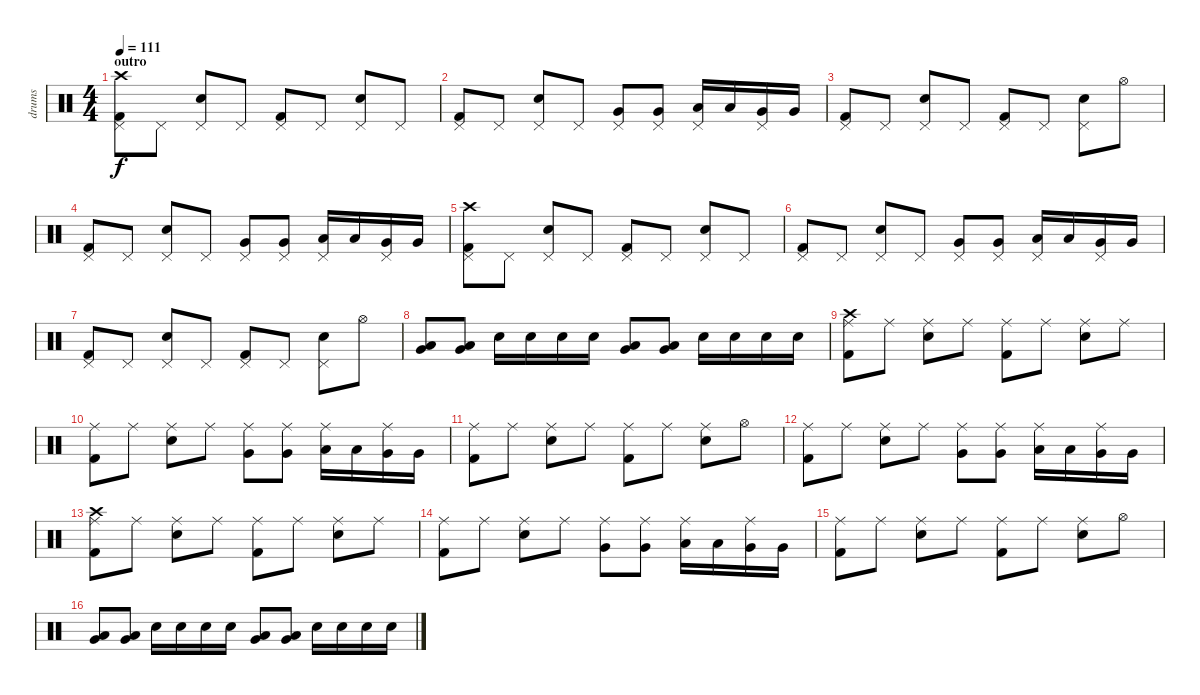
\track ("drums" "drums") {instrument percussion}
\staff {score}
\articulation defaults
\ts (4 4)
\section ("" "outro")
\tempo 111
\clef neutral
\ks c
("Kick (hit) 2" "Pedal Hi-Hat (hit)" "Crash high (hit)").8{dy f} "Pedal Hi-Hat (hit)".8 ("Electric Snare (hit)" "Pedal Hi-Hat (hit)").8 "Pedal Hi-Hat (hit)".8 ("Kick (hit) 2" "Pedal Hi-Hat (hit)").8 "Pedal Hi-Hat (hit)".8 ("Electric Snare (hit)" "Pedal Hi-Hat (hit)").8 "Pedal Hi-Hat (hit)".8 |
("Kick (hit) 2" "Pedal Hi-Hat (hit)").8 "Pedal Hi-Hat (hit)".8 ("Electric Snare (hit)" "Pedal Hi-Hat (hit)").8 "Pedal Hi-Hat (hit)".8 ("Very Low Tom (hit)" "Pedal Hi-Hat (hit)").8 ("Very Low Tom (hit)" "Pedal Hi-Hat (hit)").8 ("Low Floor Tom (hit)" "Pedal Hi-Hat (hit)").16 "Low Floor Tom (hit)".16 ("Very Low Tom (hit)" "Pedal Hi-Hat (hit)").16 "Very Low Tom (hit)".16 |
("Kick (hit) 2" "Pedal Hi-Hat (hit)").8 "Pedal Hi-Hat (hit)".8 ("Electric Snare (hit)" "Pedal Hi-Hat (hit)").8 "Pedal Hi-Hat (hit)".8 ("Kick (hit) 2" "Pedal Hi-Hat (hit)").8 "Pedal Hi-Hat (hit)".8 ("Electric Snare (hit)" "Pedal Hi-Hat (hit)").8 "Hi-Hat (open)".8 |
("Kick (hit) 2" "Pedal Hi-Hat (hit)").8 "Pedal Hi-Hat (hit)".8 ("Electric Snare (hit)" "Pedal Hi-Hat (hit)").8 "Pedal Hi-Hat (hit)".8 ("Very Low Tom (hit)" "Pedal Hi-Hat (hit)").8 ("Very Low Tom (hit)" "Pedal Hi-Hat (hit)").8 ("Low Floor Tom (hit)" "Pedal Hi-Hat (hit)").16 "Low Floor Tom (hit)".16 ("Very Low Tom (hit)" "Pedal Hi-Hat (hit)").16 "Very Low Tom (hit)".16 |
("Kick (hit) 2" "Pedal Hi-Hat (hit)" "Crash high (hit)").8 "Pedal Hi-Hat (hit)".8 ("Electric Snare (hit)" "Pedal Hi-Hat (hit)").8 "Pedal Hi-Hat (hit)".8 ("Kick (hit) 2" "Pedal Hi-Hat (hit)").8 "Pedal Hi-Hat (hit)".8 ("Electric Snare (hit)" "Pedal Hi-Hat (hit)").8 "Pedal Hi-Hat (hit)".8 |
("Kick (hit) 2" "Pedal Hi-Hat (hit)").8 "Pedal Hi-Hat (hit)".8 ("Electric Snare (hit)" "Pedal Hi-Hat (hit)").8 "Pedal Hi-Hat (hit)".8 ("Very Low Tom (hit)" "Pedal Hi-Hat (hit)").8 ("Very Low Tom (hit)" "Pedal Hi-Hat (hit)").8 ("Low Floor Tom (hit)" "Pedal Hi-Hat (hit)").16 "Low Floor Tom (hit)".16 ("Very Low Tom (hit)" "Pedal Hi-Hat (hit)").16 "Very Low Tom (hit)".16 |
("Kick (hit) 2" "Pedal Hi-Hat (hit)").8 "Pedal Hi-Hat (hit)".8 ("Electric Snare (hit)" "Pedal Hi-Hat (hit)").8 "Pedal Hi-Hat (hit)".8 ("Kick (hit) 2" "Pedal Hi-Hat (hit)").8 "Pedal Hi-Hat (hit)".8 ("Electric Snare (hit)" "Pedal Hi-Hat (hit)").8 "Hi-Hat (open)".8 |
("Low Floor Tom (hit)" "Very Low Tom (hit)").8 ("Low Floor Tom (hit)" "Very Low Tom (hit)").8 "Electric Snare (hit)".16 "Electric Snare (hit)".16 "Electric Snare (hit)".16 "Electric Snare (hit)".16 ("Very Low Tom (hit)" "Low Floor Tom (hit)").8 ("Very Low Tom (hit)" "Low Floor Tom (hit)").8 "Electric Snare (hit)".16 "Electric Snare (hit)".16 "Electric Snare (hit)".16 "Electric Snare (hit)".16 |
("Kick (hit) 2" "Ride (middle)" "Crash high (hit)").8 "Ride (middle)".8 ("Electric Snare (hit)" "Ride (middle)").8 "Ride (middle)".8 ("Kick (hit) 2" "Ride (middle)").8 "Ride (middle)".8 ("Electric Snare (hit)" "Ride (middle)").8 "Ride (middle)".8 |
("Kick (hit) 2" "Ride (middle)").8 "Ride (middle)".8 ("Electric Snare (hit)" "Ride (middle)").8 "Ride (middle)".8 ("Very Low Tom (hit)" "Ride (middle)").8 ("Very Low Tom (hit)" "Ride (middle)").8 ("Low Floor Tom (hit)" "Ride (middle)").16 "Low Floor Tom (hit)".16 ("Very Low Tom (hit)" "Ride (middle)").16 "Very Low Tom (hit)".16 |
("Kick (hit) 2" "Ride (middle)").8 "Ride (middle)".8 ("Electric Snare (hit)" "Ride (middle)").8 "Ride (middle)".8 ("Kick (hit) 2" "Ride (middle)").8 "Ride (middle)".8 ("Electric Snare (hit)" "Ride (middle)").8 "Hi-Hat (open)".8 |
("Kick (hit) 2" "Ride (middle)").8 "Ride (middle)".8 ("Electric Snare (hit)" "Ride (middle)").8 "Ride (middle)".8 ("Very Low Tom (hit)" "Ride (middle)").8 ("Very Low Tom (hit)" "Ride (middle)").8 ("Low Floor Tom (hit)" "Ride (middle)").16 "Low Floor Tom (hit)".16 ("Very Low Tom (hit)" "Ride (middle)").16 "Very Low Tom (hit)".16 |
("Kick (hit) 2" "Ride (middle)" "Crash high (hit)").8 "Ride (middle)".8 ("Electric Snare (hit)" "Ride (middle)").8 "Ride (middle)".8 ("Kick (hit) 2" "Ride (middle)").8 "Ride (middle)".8 ("Electric Snare (hit)" "Ride (middle)").8 "Ride (middle)".8 |
("Kick (hit) 2" "Ride (middle)").8 "Ride (middle)".8 ("Electric Snare (hit)" "Ride (middle)").8 "Ride (middle)".8 ("Very Low Tom (hit)" "Ride (middle)").8 ("Very Low Tom (hit)" "Ride (middle)").8 ("Low Floor Tom (hit)" "Ride (middle)").16 "Low Floor Tom (hit)".16 ("Very Low Tom (hit)" "Ride (middle)").16 "Very Low Tom (hit)".16 |
("Kick (hit) 2" "Ride (middle)").8 "Ride (middle)".8 ("Electric Snare (hit)" "Ride (middle)").8 "Ride (middle)".8 ("Kick (hit) 2" "Ride (middle)").8 "Ride (middle)".8 ("Electric Snare (hit)" "Ride (middle)").8 "Hi-Hat (open)".8 |
("Low Floor Tom (hit)" "Very Low Tom (hit)").8 ("Low Floor Tom (hit)" "Very Low Tom (hit)").8 "Electric Snare (hit)".16 "Electric Snare (hit)".16 "Electric Snare (hit)".16 "Electric Snare (hit)".16 ("Very Low Tom (hit)" "Low Floor Tom (hit)").8 ("Very Low Tom (hit)" "Low Floor Tom (hit)").8 "Electric Snare (hit)".16 "Electric Snare (hit)".16 "Electric Snare (hit)".16 "Electric Snare (hit)".16
